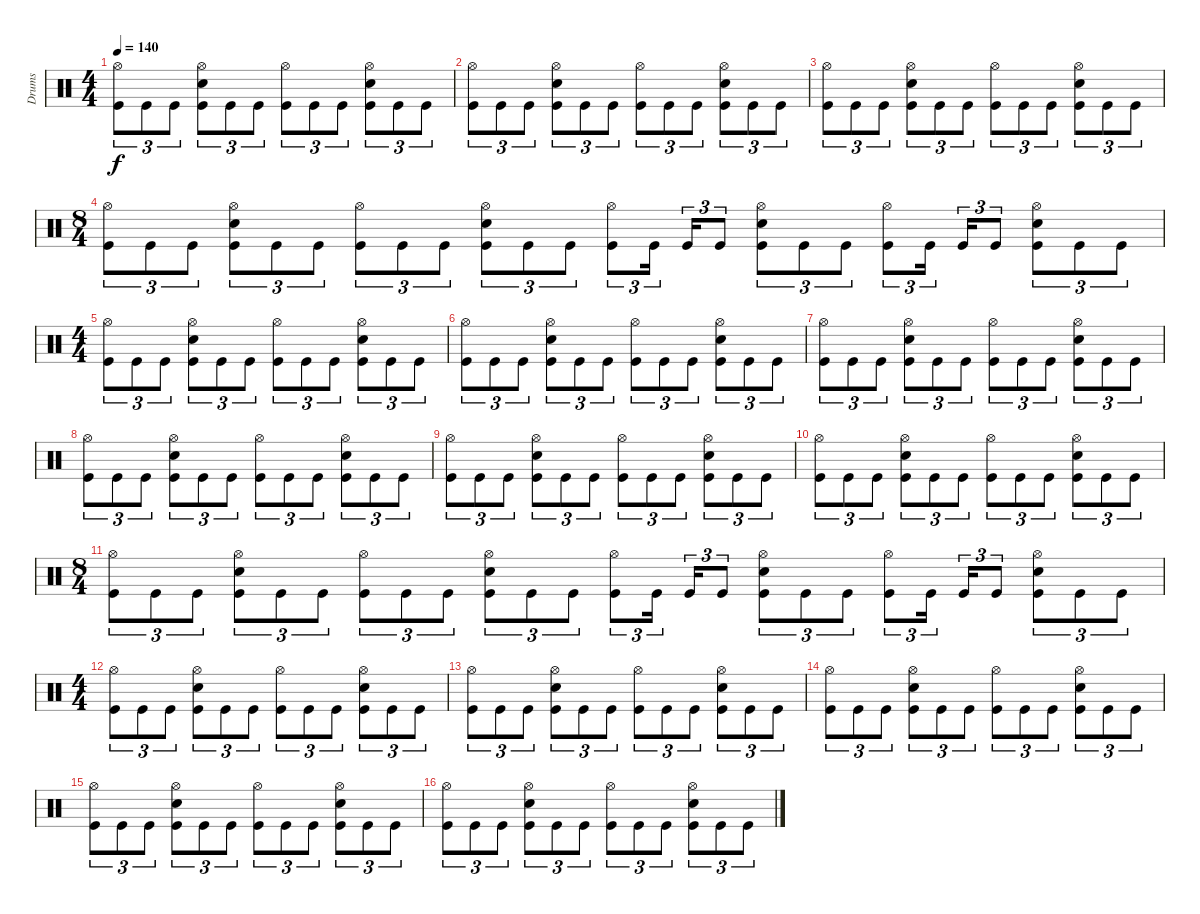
\track ("Drums" "Drums") {instrument percussion}
\staff {score}
\articulation defaults
\ts (4 4)
\tempo 140
\clef neutral
\ks c
("Hi-Hat (open)" "Kick (hit)").8{tu (3 2) dy f} "Kick (hit)".8{tu (3 2)} "Kick (hit)".8{tu (3 2)} ("Hi-Hat (open)" "Snare (hit) 2" "Kick (hit)").8{tu (3 2)} "Kick (hit)".8{tu (3 2)} "Kick (hit)".8{tu (3 2)} ("Hi-Hat (open)" "Kick (hit)").8{tu (3 2)} "Kick (hit)".8{tu (3 2)} "Kick (hit)".8{tu (3 2)} ("Hi-Hat (open)" "Snare (hit) 2" "Kick (hit)").8{tu (3 2)} "Kick (hit)".8{tu (3 2)} "Kick (hit)".8{tu (3 2)} |
("Hi-Hat (open)" "Kick (hit)").8{tu (3 2)} "Kick (hit)".8{tu (3 2)} "Kick (hit)".8{tu (3 2)} ("Hi-Hat (open)" "Snare (hit) 2" "Kick (hit)").8{tu (3 2)} "Kick (hit)".8{tu (3 2)} "Kick (hit)".8{tu (3 2)} ("Hi-Hat (open)" "Kick (hit)").8{tu (3 2)} "Kick (hit)".8{tu (3 2)} "Kick (hit)".8{tu (3 2)} ("Hi-Hat (open)" "Snare (hit) 2" "Kick (hit)").8{tu (3 2)} "Kick (hit)".8{tu (3 2)} "Kick (hit)".8{tu (3 2)} |
("Hi-Hat (open)" "Kick (hit)").8{tu (3 2)} "Kick (hit)".8{tu (3 2)} "Kick (hit)".8{tu (3 2)} ("Hi-Hat (open)" "Snare (hit) 2" "Kick (hit)").8{tu (3 2)} "Kick (hit)".8{tu (3 2)} "Kick (hit)".8{tu (3 2)} ("Hi-Hat (open)" "Kick (hit)").8{tu (3 2)} "Kick (hit)".8{tu (3 2)} "Kick (hit)".8{tu (3 2)} ("Hi-Hat (open)" "Snare (hit) 2" "Kick (hit)").8{tu (3 2)} "Kick (hit)".8{tu (3 2)} "Kick (hit)".8{tu (3 2)} |
\ts (8 4)
("Hi-Hat (open)" "Kick (hit)").8{tu (3 2)} "Kick (hit)".8{tu (3 2)} "Kick (hit)".8{tu (3 2)} ("Hi-Hat (open)" "Snare (hit) 2" "Kick (hit)").8{tu (3 2)} "Kick (hit)".8{tu (3 2)} "Kick (hit)".8{tu (3 2)} ("Hi-Hat (open)" "Kick (hit)").8{tu (3 2)} "Kick (hit)".8{tu (3 2)} "Kick (hit)".8{tu (3 2)} ("Hi-Hat (open)" "Snare (hit) 2" "Kick (hit)").8{tu (3 2)} "Kick (hit)".8{tu (3 2)} "Kick (hit)".8{tu (3 2)} ("Hi-Hat (open)" "Kick (hit)").8{tu (3 2)} "Kick (hit)".16{tu (3 2)} "Kick (hit)".16{tu (3 2)} "Kick (hit)".8{tu (3 2)} ("Hi-Hat (open)" "Snare (hit) 2" "Kick (hit)").8{tu (3 2)} "Kick (hit)".8{tu (3 2)} "Kick (hit)".8{tu (3 2)} ("Hi-Hat (open)" "Kick (hit)").8{tu (3 2)} "Kick (hit)".16{tu (3 2)} "Kick (hit)".16{tu (3 2)} "Kick (hit)".8{tu (3 2)} ("Hi-Hat (open)" "Snare (hit) 2" "Kick (hit)").8{tu (3 2)} "Kick (hit)".8{tu (3 2)} "Kick (hit)".8{tu (3 2)} |
\ts (4 4)
("Hi-Hat (open)" "Kick (hit)").8{tu (3 2)} "Kick (hit)".8{tu (3 2)} "Kick (hit)".8{tu (3 2)} ("Hi-Hat (open)" "Snare (hit) 2" "Kick (hit)").8{tu (3 2)} "Kick (hit)".8{tu (3 2)} "Kick (hit)".8{tu (3 2)} ("Hi-Hat (open)" "Kick (hit)").8{tu (3 2)} "Kick (hit)".8{tu (3 2)} "Kick (hit)".8{tu (3 2)} ("Hi-Hat (open)" "Snare (hit) 2" "Kick (hit)").8{tu (3 2)} "Kick (hit)".8{tu (3 2)} "Kick (hit)".8{tu (3 2)} |
("Hi-Hat (open)" "Kick (hit)").8{tu (3 2)} "Kick (hit)".8{tu (3 2)} "Kick (hit)".8{tu (3 2)} ("Hi-Hat (open)" "Snare (hit) 2" "Kick (hit)").8{tu (3 2)} "Kick (hit)".8{tu (3 2)} "Kick (hit)".8{tu (3 2)} ("Hi-Hat (open)" "Kick (hit)").8{tu (3 2)} "Kick (hit)".8{tu (3 2)} "Kick (hit)".8{tu (3 2)} ("Hi-Hat (open)" "Snare (hit) 2" "Kick (hit)").8{tu (3 2)} "Kick (hit)".8{tu (3 2)} "Kick (hit)".8{tu (3 2)} |
("Hi-Hat (open)" "Kick (hit)").8{tu (3 2)} "Kick (hit)".8{tu (3 2)} "Kick (hit)".8{tu (3 2)} ("Hi-Hat (open)" "Snare (hit) 2" "Kick (hit)").8{tu (3 2)} "Kick (hit)".8{tu (3 2)} "Kick (hit)".8{tu (3 2)} ("Hi-Hat (open)" "Kick (hit)").8{tu (3 2)} "Kick (hit)".8{tu (3 2)} "Kick (hit)".8{tu (3 2)} ("Hi-Hat (open)" "Snare (hit) 2" "Kick (hit)").8{tu (3 2)} "Kick (hit)".8{tu (3 2)} "Kick (hit)".8{tu (3 2)} |
("Hi-Hat (open)" "Kick (hit)").8{tu (3 2)} "Kick (hit)".8{tu (3 2)} "Kick (hit)".8{tu (3 2)} ("Hi-Hat (open)" "Snare (hit) 2" "Kick (hit)").8{tu (3 2)} "Kick (hit)".8{tu (3 2)} "Kick (hit)".8{tu (3 2)} ("Hi-Hat (open)" "Kick (hit)").8{tu (3 2)} "Kick (hit)".8{tu (3 2)} "Kick (hit)".8{tu (3 2)} ("Hi-Hat (open)" "Snare (hit) 2" "Kick (hit)").8{tu (3 2)} "Kick (hit)".8{tu (3 2)} "Kick (hit)".8{tu (3 2)} |
("Hi-Hat (open)" "Kick (hit)").8{tu (3 2)} "Kick (hit)".8{tu (3 2)} "Kick (hit)".8{tu (3 2)} ("Hi-Hat (open)" "Snare (hit) 2" "Kick (hit)").8{tu (3 2)} "Kick (hit)".8{tu (3 2)} "Kick (hit)".8{tu (3 2)} ("Hi-Hat (open)" "Kick (hit)").8{tu (3 2)} "Kick (hit)".8{tu (3 2)} "Kick (hit)".8{tu (3 2)} ("Hi-Hat (open)" "Snare (hit) 2" "Kick (hit)").8{tu (3 2)} "Kick (hit)".8{tu (3 2)} "Kick (hit)".8{tu (3 2)} |
("Hi-Hat (open)" "Kick (hit)").8{tu (3 2)} "Kick (hit)".8{tu (3 2)} "Kick (hit)".8{tu (3 2)} ("Hi-Hat (open)" "Snare (hit) 2" "Kick (hit)").8{tu (3 2)} "Kick (hit)".8{tu (3 2)} "Kick (hit)".8{tu (3 2)} ("Hi-Hat (open)" "Kick (hit)").8{tu (3 2)} "Kick (hit)".8{tu (3 2)} "Kick (hit)".8{tu (3 2)} ("Hi-Hat (open)" "Snare (hit) 2" "Kick (hit)").8{tu (3 2)} "Kick (hit)".8{tu (3 2)} "Kick (hit)".8{tu (3 2)} |
\ts (8 4)
("Hi-Hat (open)" "Kick (hit)").8{tu (3 2)} "Kick (hit)".8{tu (3 2)} "Kick (hit)".8{tu (3 2)} ("Hi-Hat (open)" "Snare (hit) 2" "Kick (hit)").8{tu (3 2)} "Kick (hit)".8{tu (3 2)} "Kick (hit)".8{tu (3 2)} ("Hi-Hat (open)" "Kick (hit)").8{tu (3 2)} "Kick (hit)".8{tu (3 2)} "Kick (hit)".8{tu (3 2)} ("Hi-Hat (open)" "Snare (hit) 2" "Kick (hit)").8{tu (3 2)} "Kick (hit)".8{tu (3 2)} "Kick (hit)".8{tu (3 2)} ("Hi-Hat (open)" "Kick (hit)").8{tu (3 2)} "Kick (hit)".16{tu (3 2)} "Kick (hit)".16{tu (3 2)} "Kick (hit)".8{tu (3 2)} ("Hi-Hat (open)" "Snare (hit) 2" "Kick (hit)").8{tu (3 2)} "Kick (hit)".8{tu (3 2)} "Kick (hit)".8{tu (3 2)} ("Hi-Hat (open)" "Kick (hit)").8{tu (3 2)} "Kick (hit)".16{tu (3 2)} "Kick (hit)".16{tu (3 2)} "Kick (hit)".8{tu (3 2)} ("Hi-Hat (open)" "Snare (hit) 2" "Kick (hit)").8{tu (3 2)} "Kick (hit)".8{tu (3 2)} "Kick (hit)".8{tu (3 2)} |
\ts (4 4)
("Hi-Hat (open)" "Kick (hit)").8{tu (3 2)} "Kick (hit)".8{tu (3 2)} "Kick (hit)".8{tu (3 2)} ("Hi-Hat (open)" "Snare (hit) 2" "Kick (hit)").8{tu (3 2)} "Kick (hit)".8{tu (3 2)} "Kick (hit)".8{tu (3 2)} ("Hi-Hat (open)" "Kick (hit)").8{tu (3 2)} "Kick (hit)".8{tu (3 2)} "Kick (hit)".8{tu (3 2)} ("Hi-Hat (open)" "Snare (hit) 2" "Kick (hit)").8{tu (3 2)} "Kick (hit)".8{tu (3 2)} "Kick (hit)".8{tu (3 2)} |
("Hi-Hat (open)" "Kick (hit)").8{tu (3 2)} "Kick (hit)".8{tu (3 2)} "Kick (hit)".8{tu (3 2)} ("Hi-Hat (open)" "Snare (hit) 2" "Kick (hit)").8{tu (3 2)} "Kick (hit)".8{tu (3 2)} "Kick (hit)".8{tu (3 2)} ("Hi-Hat (open)" "Kick (hit)").8{tu (3 2)} "Kick (hit)".8{tu (3 2)} "Kick (hit)".8{tu (3 2)} ("Hi-Hat (open)" "Snare (hit) 2" "Kick (hit)").8{tu (3 2)} "Kick (hit)".8{tu (3 2)} "Kick (hit)".8{tu (3 2)} |
("Hi-Hat (open)" "Kick (hit)").8{tu (3 2)} "Kick (hit)".8{tu (3 2)} "Kick (hit)".8{tu (3 2)} ("Hi-Hat (open)" "Snare (hit) 2" "Kick (hit)").8{tu (3 2)} "Kick (hit)".8{tu (3 2)} "Kick (hit)".8{tu (3 2)} ("Hi-Hat (open)" "Kick (hit)").8{tu (3 2)} "Kick (hit)".8{tu (3 2)} "Kick (hit)".8{tu (3 2)} ("Hi-Hat (open)" "Snare (hit) 2" "Kick (hit)").8{tu (3 2)} "Kick (hit)".8{tu (3 2)} "Kick (hit)".8{tu (3 2)} |
("Hi-Hat (open)" "Kick (hit)").8{tu (3 2)} "Kick (hit)".8{tu (3 2)} "Kick (hit)".8{tu (3 2)} ("Hi-Hat (open)" "Snare (hit) 2" "Kick (hit)").8{tu (3 2)} "Kick (hit)".8{tu (3 2)} "Kick (hit)".8{tu (3 2)} ("Hi-Hat (open)" "Kick (hit)").8{tu (3 2)} "Kick (hit)".8{tu (3 2)} "Kick (hit)".8{tu (3 2)} ("Hi-Hat (open)" "Snare (hit) 2" "Kick (hit)").8{tu (3 2)} "Kick (hit)".8{tu (3 2)} "Kick (hit)".8{tu (3 2)} |
("Hi-Hat (open)" "Kick (hit)").8{tu (3 2)} "Kick (hit)".8{tu (3 2)} "Kick (hit)".8{tu (3 2)} ("Hi-Hat (open)" "Snare (hit) 2" "Kick (hit)").8{tu (3 2)} "Kick (hit)".8{tu (3 2)} "Kick (hit)".8{tu (3 2)} ("Hi-Hat (open)" "Kick (hit)").8{tu (3 2)} "Kick (hit)".8{tu (3 2)} "Kick (hit)".8{tu (3 2)} ("Hi-Hat (open)" "Snare (hit) 2" "Kick (hit)").8{tu (3 2)} "Kick (hit)".8{tu (3 2)} "Kick (hit)".8{tu (3 2)}
